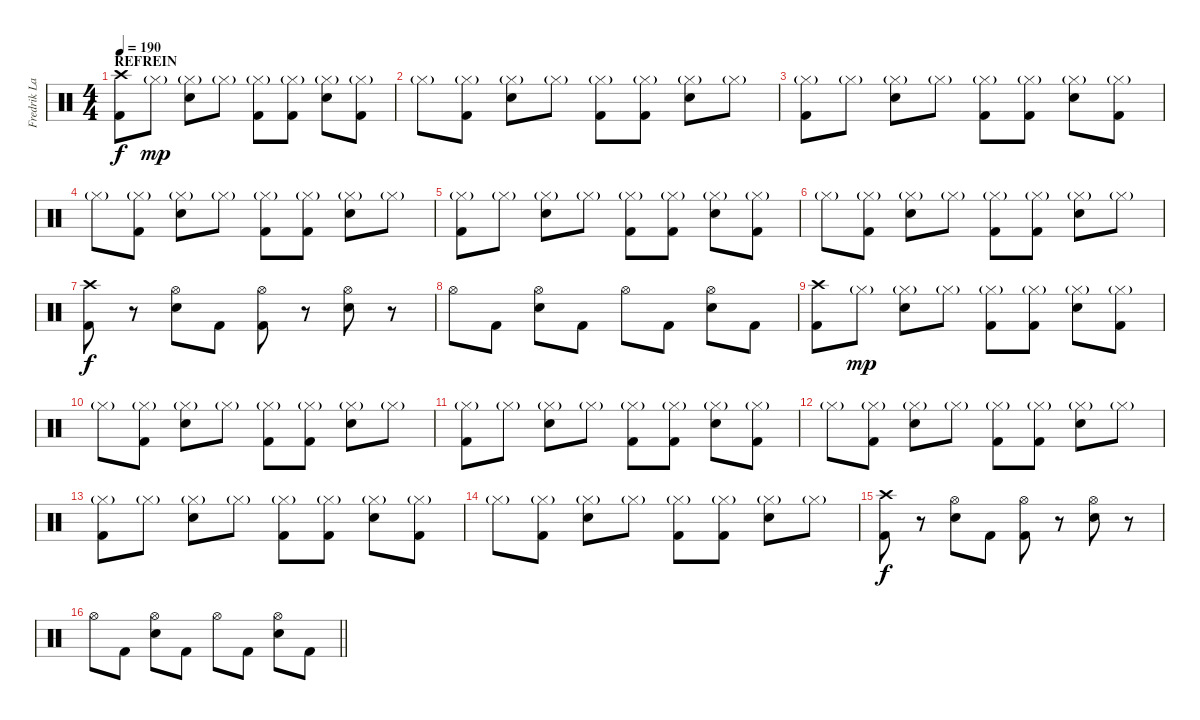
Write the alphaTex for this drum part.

\track ("Fredrik Larson" "Fredrik La") {instrument percussion}
\staff {score}
\articulation defaults
\ts (4 4)
\section ("" "REFREIN")
\tempo 190
\clef neutral
\ks c
("Crash high (hit)" "Kick (hit) 2").8{dy f} "Hi-Hat (closed)"{g}.8{dy mp} ("Hi-Hat (closed)"{g} "Snare (hit) 2").8 "Hi-Hat (closed)"{g}.8 ("Hi-Hat (closed)"{g} "Kick (hit) 2").8 ("Hi-Hat (closed)"{g} "Kick (hit) 2").8 ("Hi-Hat (closed)"{g} "Snare (hit) 2").8 ("Hi-Hat (closed)"{g} "Kick (hit) 2").8 |
"Hi-Hat (closed)"{g}.8 ("Hi-Hat (closed)"{g} "Kick (hit) 2").8 ("Hi-Hat (closed)"{g} "Snare (hit) 2").8 "Hi-Hat (closed)"{g}.8 ("Hi-Hat (closed)"{g} "Kick (hit) 2").8 ("Hi-Hat (closed)"{g} "Kick (hit) 2").8 ("Hi-Hat (closed)"{g} "Snare (hit) 2").8 "Hi-Hat (closed)"{g}.8 |
("Hi-Hat (closed)"{g} "Kick (hit) 2").8 "Hi-Hat (closed)"{g}.8 ("Hi-Hat (closed)"{g} "Snare (hit) 2").8 "Hi-Hat (closed)"{g}.8 ("Hi-Hat (closed)"{g} "Kick (hit) 2").8 ("Hi-Hat (closed)"{g} "Kick (hit) 2").8 ("Hi-Hat (closed)"{g} "Snare (hit) 2").8 ("Hi-Hat (closed)"{g} "Kick (hit) 2").8 |
"Hi-Hat (closed)"{g}.8 ("Hi-Hat (closed)"{g} "Kick (hit) 2").8 ("Hi-Hat (closed)"{g} "Snare (hit) 2").8 "Hi-Hat (closed)"{g}.8 ("Hi-Hat (closed)"{g} "Kick (hit) 2").8 ("Hi-Hat (closed)"{g} "Kick (hit) 2").8 ("Hi-Hat (closed)"{g} "Snare (hit) 2").8 "Hi-Hat (closed)"{g}.8 |
("Hi-Hat (closed)"{g} "Kick (hit) 2").8 "Hi-Hat (closed)"{g}.8 ("Hi-Hat (closed)"{g} "Snare (hit) 2").8 "Hi-Hat (closed)"{g}.8 ("Hi-Hat (closed)"{g} "Kick (hit) 2").8 ("Hi-Hat (closed)"{g} "Kick (hit) 2").8 ("Hi-Hat (closed)"{g} "Snare (hit) 2").8 ("Hi-Hat (closed)"{g} "Kick (hit) 2").8 |
"Hi-Hat (closed)"{g}.8 ("Hi-Hat (closed)"{g} "Kick (hit) 2").8 ("Hi-Hat (closed)"{g} "Snare (hit) 2").8 "Hi-Hat (closed)"{g}.8 ("Hi-Hat (closed)"{g} "Kick (hit) 2").8 ("Hi-Hat (closed)"{g} "Kick (hit) 2").8 ("Hi-Hat (closed)"{g} "Snare (hit) 2").8 "Hi-Hat (closed)"{g}.8 |
("Crash high (hit)" "Kick (hit) 2").8{dy f} r.8 ("Hi-Hat (open)" "Snare (hit) 2").8 "Kick (hit) 2".8 ("Hi-Hat (open)" "Kick (hit) 2").8 r.8 ("Hi-Hat (open)" "Snare (hit) 2").8 r.8 |
"Hi-Hat (open)".8 "Kick (hit) 2".8 ("Hi-Hat (open)" "Snare (hit) 2").8 "Kick (hit) 2".8 "Hi-Hat (open)".8 "Kick (hit) 2".8 ("Hi-Hat (open)" "Snare (hit) 2").8 "Kick (hit) 2".8 |
("Crash high (hit)" "Kick (hit) 2").8 "Hi-Hat (closed)"{g}.8{dy mp} ("Hi-Hat (closed)"{g} "Snare (hit) 2").8 "Hi-Hat (closed)"{g}.8 ("Hi-Hat (closed)"{g} "Kick (hit) 2").8 ("Hi-Hat (closed)"{g} "Kick (hit) 2").8 ("Hi-Hat (closed)"{g} "Snare (hit) 2").8 ("Hi-Hat (closed)"{g} "Kick (hit) 2").8 |
"Hi-Hat (closed)"{g}.8 ("Hi-Hat (closed)"{g} "Kick (hit) 2").8 ("Hi-Hat (closed)"{g} "Snare (hit) 2").8 "Hi-Hat (closed)"{g}.8 ("Hi-Hat (closed)"{g} "Kick (hit) 2").8 ("Hi-Hat (closed)"{g} "Kick (hit) 2").8 ("Hi-Hat (closed)"{g} "Snare (hit) 2").8 "Hi-Hat (closed)"{g}.8 |
("Hi-Hat (closed)"{g} "Kick (hit) 2").8 "Hi-Hat (closed)"{g}.8 ("Hi-Hat (closed)"{g} "Snare (hit) 2").8 "Hi-Hat (closed)"{g}.8 ("Hi-Hat (closed)"{g} "Kick (hit) 2").8 ("Hi-Hat (closed)"{g} "Kick (hit) 2").8 ("Hi-Hat (closed)"{g} "Snare (hit) 2").8 ("Hi-Hat (closed)"{g} "Kick (hit) 2").8 |
"Hi-Hat (closed)"{g}.8 ("Hi-Hat (closed)"{g} "Kick (hit) 2").8 ("Hi-Hat (closed)"{g} "Snare (hit) 2").8 "Hi-Hat (closed)"{g}.8 ("Hi-Hat (closed)"{g} "Kick (hit) 2").8 ("Hi-Hat (closed)"{g} "Kick (hit) 2").8 ("Hi-Hat (closed)"{g} "Snare (hit) 2").8 "Hi-Hat (closed)"{g}.8 |
("Hi-Hat (closed)"{g} "Kick (hit) 2").8 "Hi-Hat (closed)"{g}.8 ("Hi-Hat (closed)"{g} "Snare (hit) 2").8 "Hi-Hat (closed)"{g}.8 ("Hi-Hat (closed)"{g} "Kick (hit) 2").8 ("Hi-Hat (closed)"{g} "Kick (hit) 2").8 ("Hi-Hat (closed)"{g} "Snare (hit) 2").8 ("Hi-Hat (closed)"{g} "Kick (hit) 2").8 |
"Hi-Hat (closed)"{g}.8 ("Hi-Hat (closed)"{g} "Kick (hit) 2").8 ("Hi-Hat (closed)"{g} "Snare (hit) 2").8 "Hi-Hat (closed)"{g}.8 ("Hi-Hat (closed)"{g} "Kick (hit) 2").8 ("Hi-Hat (closed)"{g} "Kick (hit) 2").8 ("Hi-Hat (closed)"{g} "Snare (hit) 2").8 "Hi-Hat (closed)"{g}.8 |
("Crash high (hit)" "Kick (hit) 2").8{dy f} r.8 ("Hi-Hat (open)" "Snare (hit) 2").8 "Kick (hit) 2".8 ("Hi-Hat (open)" "Kick (hit) 2").8 r.8 ("Hi-Hat (open)" "Snare (hit) 2").8 r.8 |
\barLineRight lightlight "Hi-Hat (open)".8 "Kick (hit) 2".8
("Hi-Hat (open)" "Snare (hit) 2").8 "Kick (hit) 2".8 "Hi-Hat (open)".8 "Kick (hit) 2".8 ("Hi-Hat (open)" "Snare (hit) 2").8 "Kick (hit) 2".8
